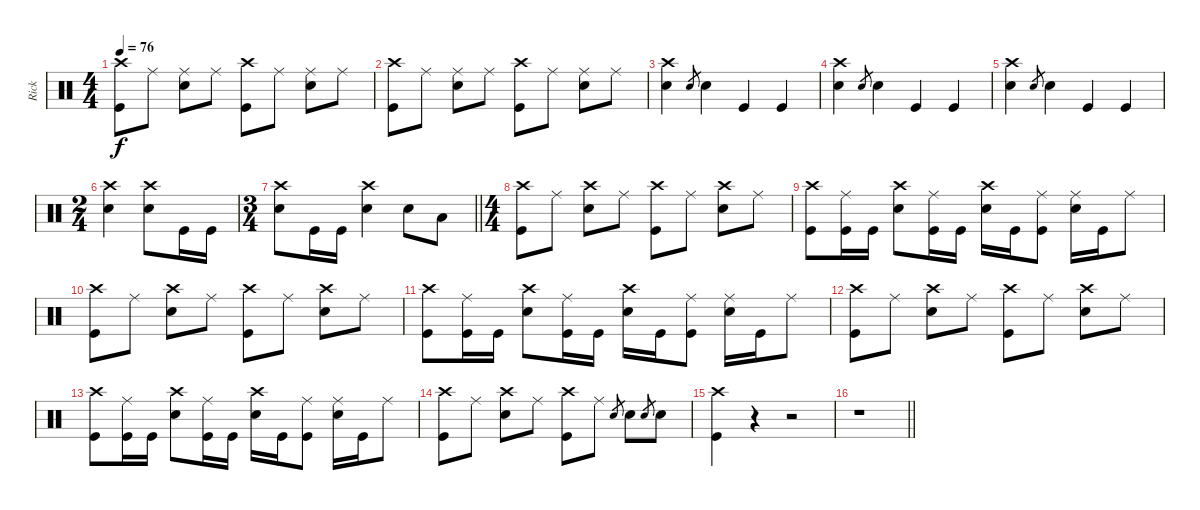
\track ("Rick" "Rick") {instrument percussion}
\staff {score}
\articulation defaults
\ts (4 4)
\tempo 76
\clef neutral
\ks aminor
("Crash high (hit)" "Kick (hit)").8{dy f} "Ride (middle)".8 ("Ride (middle)" "Snare (hit) 2").8 "Ride (middle)".8 ("Crash high (hit)" "Kick (hit)").8 "Ride (middle)".8 ("Ride (middle)" "Snare (hit) 2").8 "Ride (middle)".8 |
("Crash high (hit)" "Kick (hit)").8 "Ride (middle)".8 ("Ride (middle)" "Snare (hit) 2").8 "Ride (middle)".8 ("Crash high (hit)" "Kick (hit)").8 "Ride (middle)".8 ("Ride (middle)" "Snare (hit) 2").8 "Ride (middle)".8 |
("Crash high (hit)" "Snare (hit) 2").4 "Snare (hit) 2".8{gr} "Snare (hit) 2".4 "Kick (hit)".4 "Kick (hit)".4 |
("Crash high (hit)" "Snare (hit) 2").4 "Snare (hit) 2".8{gr} "Snare (hit) 2".4 "Kick (hit)".4 "Kick (hit)".4 |
("Crash high (hit)" "Snare (hit) 2").4 "Snare (hit) 2".8{gr} "Snare (hit) 2".4 "Kick (hit)".4 "Kick (hit)".4 |
\ts (2 4)
("Crash high (hit)" "Snare (hit) 2").4 ("Crash high (hit)" "Snare (hit) 2").8 "Kick (hit)".16 "Kick (hit)".16 |
\ts (3 4)
\barLineRight lightlight
("Crash high (hit)" "Snare (hit) 2").8 "Kick (hit)".16 "Kick (hit)".16 ("Crash high (hit)" "Snare (hit) 2").4 "Snare (hit) 2".8 "Low Tom (hit)".8 |
\ts (4 4)
("Crash high (hit)" "Kick (hit)").8 "Ride (middle)".8 ("Crash high (hit)" "Snare (hit) 2").8 "Ride (middle)".8 ("Crash high (hit)" "Kick (hit)").8 "Ride (middle)".8 ("Crash high (hit)" "Snare (hit) 2").8 "Ride (middle)".8 |
("Crash high (hit)" "Kick (hit)").8 ("Ride (middle)" "Kick (hit)").16 "Kick (hit)".16 ("Crash high (hit)" "Snare (hit) 2").8 ("Ride (middle)" "Kick (hit)").16 "Kick (hit)".16 ("Crash high (hit)" "Snare (hit) 2").16 "Kick (hit)".16 ("Ride (middle)" "Kick (hit)").8 ("Ride (middle)" "Snare (hit) 2").16 "Kick (hit)".16 "Ride (middle)".8 |
("Crash high (hit)" "Kick (hit)").8 "Ride (middle)".8 ("Crash high (hit)" "Snare (hit) 2").8 "Ride (middle)".8 ("Crash high (hit)" "Kick (hit)").8 "Ride (middle)".8 ("Crash high (hit)" "Snare (hit) 2").8 "Ride (middle)".8 |
("Crash high (hit)" "Kick (hit)").8 ("Ride (middle)" "Kick (hit)").16 "Kick (hit)".16 ("Crash high (hit)" "Snare (hit) 2").8 ("Ride (middle)" "Kick (hit)").16 "Kick (hit)".16 ("Crash high (hit)" "Snare (hit) 2").16 "Kick (hit)".16 ("Ride (middle)" "Kick (hit)").8 ("Ride (middle)" "Snare (hit) 2").16 "Kick (hit)".16 "Ride (middle)".8 |
("Crash high (hit)" "Kick (hit)").8 "Ride (middle)".8 ("Crash high (hit)" "Snare (hit) 2").8 "Ride (middle)".8 ("Crash high (hit)" "Kick (hit)").8 "Ride (middle)".8 ("Crash high (hit)" "Snare (hit) 2").8 "Ride (middle)".8 |
("Crash high (hit)" "Kick (hit)").8 ("Ride (middle)" "Kick (hit)").16 "Kick (hit)".16 ("Crash high (hit)" "Snare (hit) 2").8 ("Ride (middle)" "Kick (hit)").16 "Kick (hit)".16 ("Crash high (hit)" "Snare (hit) 2").16 "Kick (hit)".16 ("Ride (middle)" "Kick (hit)").8 ("Ride (middle)" "Snare (hit) 2").16 "Kick (hit)".16 "Ride (middle)".8 |
("Crash high (hit)" "Kick (hit)").8 "Ride (middle)".8 ("Crash high (hit)" "Snare (hit) 2").8 "Ride (middle)".8 ("Crash high (hit)" "Kick (hit)").8 "Ride (middle)".8 "Snare (hit) 2".8{gr} "Snare (hit) 2".8 "Snare (hit) 2".8{gr} "Snare (hit) 2".8 |
("Crash high (hit)" "Kick (hit)").4 r.4 r.2 |
\barLineRight lightlight
r.1
